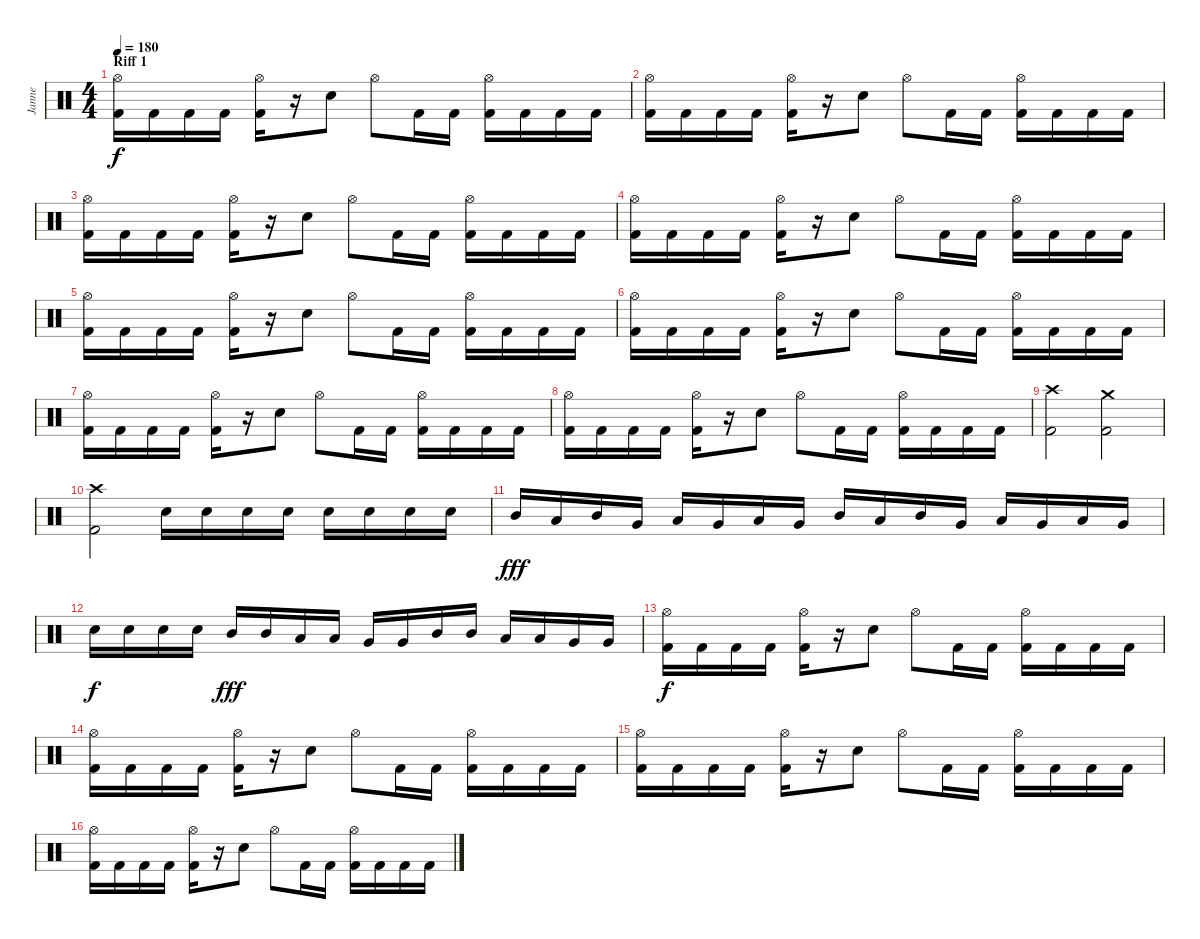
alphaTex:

\track ("Janne" "Janne") {instrument percussion}
\staff {score}
\articulation defaults
\ts (4 4)
\section ("" "Riff 1")
\tempo 180
\clef neutral
\ks c
("Hi-Hat (open)" "Kick (hit) 2").16{dy f} "Kick (hit) 2".16 "Kick (hit) 2".16 "Kick (hit) 2".16 ("Hi-Hat (open)" "Kick (hit) 2").16 r.16 "Electric Snare (hit)".8 "Hi-Hat (open)".8 "Kick (hit) 2".16 "Kick (hit) 2".16 ("Hi-Hat (open)" "Kick (hit) 2").16 "Kick (hit) 2".16 "Kick (hit) 2".16 "Kick (hit) 2".16 |
("Hi-Hat (open)" "Kick (hit) 2").16 "Kick (hit) 2".16 "Kick (hit) 2".16 "Kick (hit) 2".16 ("Hi-Hat (open)" "Kick (hit) 2").16 r.16 "Electric Snare (hit)".8 "Hi-Hat (open)".8 "Kick (hit) 2".16 "Kick (hit) 2".16 ("Hi-Hat (open)" "Kick (hit) 2").16 "Kick (hit) 2".16 "Kick (hit) 2".16 "Kick (hit) 2".16 |
("Hi-Hat (open)" "Kick (hit) 2").16 "Kick (hit) 2".16 "Kick (hit) 2".16 "Kick (hit) 2".16 ("Hi-Hat (open)" "Kick (hit) 2").16 r.16 "Electric Snare (hit)".8 "Hi-Hat (open)".8 "Kick (hit) 2".16 "Kick (hit) 2".16 ("Hi-Hat (open)" "Kick (hit) 2").16 "Kick (hit) 2".16 "Kick (hit) 2".16 "Kick (hit) 2".16 |
("Hi-Hat (open)" "Kick (hit) 2").16 "Kick (hit) 2".16 "Kick (hit) 2".16 "Kick (hit) 2".16 ("Hi-Hat (open)" "Kick (hit) 2").16 r.16 "Electric Snare (hit)".8 "Hi-Hat (open)".8 "Kick (hit) 2".16 "Kick (hit) 2".16 ("Hi-Hat (open)" "Kick (hit) 2").16 "Kick (hit) 2".16 "Kick (hit) 2".16 "Kick (hit) 2".16 |
("Hi-Hat (open)" "Kick (hit) 2").16 "Kick (hit) 2".16 "Kick (hit) 2".16 "Kick (hit) 2".16 ("Hi-Hat (open)" "Kick (hit) 2").16 r.16 "Electric Snare (hit)".8 "Hi-Hat (open)".8 "Kick (hit) 2".16 "Kick (hit) 2".16 ("Hi-Hat (open)" "Kick (hit) 2").16 "Kick (hit) 2".16 "Kick (hit) 2".16 "Kick (hit) 2".16 |
("Hi-Hat (open)" "Kick (hit) 2").16 "Kick (hit) 2".16 "Kick (hit) 2".16 "Kick (hit) 2".16 ("Hi-Hat (open)" "Kick (hit) 2").16 r.16 "Electric Snare (hit)".8 "Hi-Hat (open)".8 "Kick (hit) 2".16 "Kick (hit) 2".16 ("Hi-Hat (open)" "Kick (hit) 2").16 "Kick (hit) 2".16 "Kick (hit) 2".16 "Kick (hit) 2".16 |
("Hi-Hat (open)" "Kick (hit) 2").16 "Kick (hit) 2".16 "Kick (hit) 2".16 "Kick (hit) 2".16 ("Hi-Hat (open)" "Kick (hit) 2").16 r.16 "Electric Snare (hit)".8 "Hi-Hat (open)".8 "Kick (hit) 2".16 "Kick (hit) 2".16 ("Hi-Hat (open)" "Kick (hit) 2").16 "Kick (hit) 2".16 "Kick (hit) 2".16 "Kick (hit) 2".16 |
("Hi-Hat (open)" "Kick (hit) 2").16 "Kick (hit) 2".16 "Kick (hit) 2".16 "Kick (hit) 2".16 ("Hi-Hat (open)" "Kick (hit) 2").16 r.16 "Electric Snare (hit)".8 "Hi-Hat (open)".8 "Kick (hit) 2".16 "Kick (hit) 2".16 ("Hi-Hat (open)" "Kick (hit) 2").16 "Kick (hit) 2".16 "Kick (hit) 2".16 "Kick (hit) 2".16 |
("Crash high (hit)" "Kick (hit) 2").2 ("Crash medium (hit)" "Kick (hit) 2").2 |
("Crash high (hit)" "Kick (hit) 2").2 "Electric Snare (hit)".16 "Electric Snare (hit)".16 "Electric Snare (hit)".16 "Electric Snare (hit)".16 "Electric Snare (hit)".16 "Electric Snare (hit)".16 "Electric Snare (hit)".16 "Electric Snare (hit)".16 |
"Mid Tom (hit)".16{dy fff} "Low Tom (hit)".16 "Mid Tom (hit)".16 "Very Low Tom (hit)".16 "Low Tom (hit)".16 "Very Low Tom (hit)".16 "Low Tom (hit)".16 "Very Low Tom (hit)".16 "Mid Tom (hit)".16 "Low Tom (hit)".16 "Mid Tom (hit)".16 "Very Low Tom (hit)".16 "Low Tom (hit)".16 "Very Low Tom (hit)".16 "Low Tom (hit)".16 "Very Low Tom (hit)".16 |
"Electric Snare (hit)".16{dy f} "Electric Snare (hit)".16 "Electric Snare (hit)".16 "Electric Snare (hit)".16 "Mid Tom (hit)".16{dy fff} "Mid Tom (hit)".16 "Low Tom (hit)".16 "Low Tom (hit)".16 "Very Low Tom (hit)".16 "Very Low Tom (hit)".16 "Mid Tom (hit)".16 "Mid Tom (hit)".16 "Low Tom (hit)".16 "Low Tom (hit)".16 "Very Low Tom (hit)".16 "Very Low Tom (hit)".16 |
("Hi-Hat (open)" "Kick (hit) 2").16{dy f} "Kick (hit) 2".16 "Kick (hit) 2".16 "Kick (hit) 2".16 ("Hi-Hat (open)" "Kick (hit) 2").16 r.16 "Electric Snare (hit)".8 "Hi-Hat (open)".8 "Kick (hit) 2".16 "Kick (hit) 2".16 ("Hi-Hat (open)" "Kick (hit) 2").16 "Kick (hit) 2".16 "Kick (hit) 2".16 "Kick (hit) 2".16 |
("Hi-Hat (open)" "Kick (hit) 2").16 "Kick (hit) 2".16 "Kick (hit) 2".16 "Kick (hit) 2".16 ("Hi-Hat (open)" "Kick (hit) 2").16 r.16 "Electric Snare (hit)".8 "Hi-Hat (open)".8 "Kick (hit) 2".16 "Kick (hit) 2".16 ("Hi-Hat (open)" "Kick (hit) 2").16 "Kick (hit) 2".16 "Kick (hit) 2".16 "Kick (hit) 2".16 |
("Hi-Hat (open)" "Kick (hit) 2").16 "Kick (hit) 2".16 "Kick (hit) 2".16 "Kick (hit) 2".16 ("Hi-Hat (open)" "Kick (hit) 2").16 r.16 "Electric Snare (hit)".8 "Hi-Hat (open)".8 "Kick (hit) 2".16 "Kick (hit) 2".16 ("Hi-Hat (open)" "Kick (hit) 2").16 "Kick (hit) 2".16 "Kick (hit) 2".16 "Kick (hit) 2".16 |
("Hi-Hat (open)" "Kick (hit) 2").16 "Kick (hit) 2".16 "Kick (hit) 2".16 "Kick (hit) 2".16 ("Hi-Hat (open)" "Kick (hit) 2").16 r.16 "Electric Snare (hit)".8 "Hi-Hat (open)".8 "Kick (hit) 2".16 "Kick (hit) 2".16 ("Hi-Hat (open)" "Kick (hit) 2").16 "Kick (hit) 2".16 "Kick (hit) 2".16 "Kick (hit) 2".16
